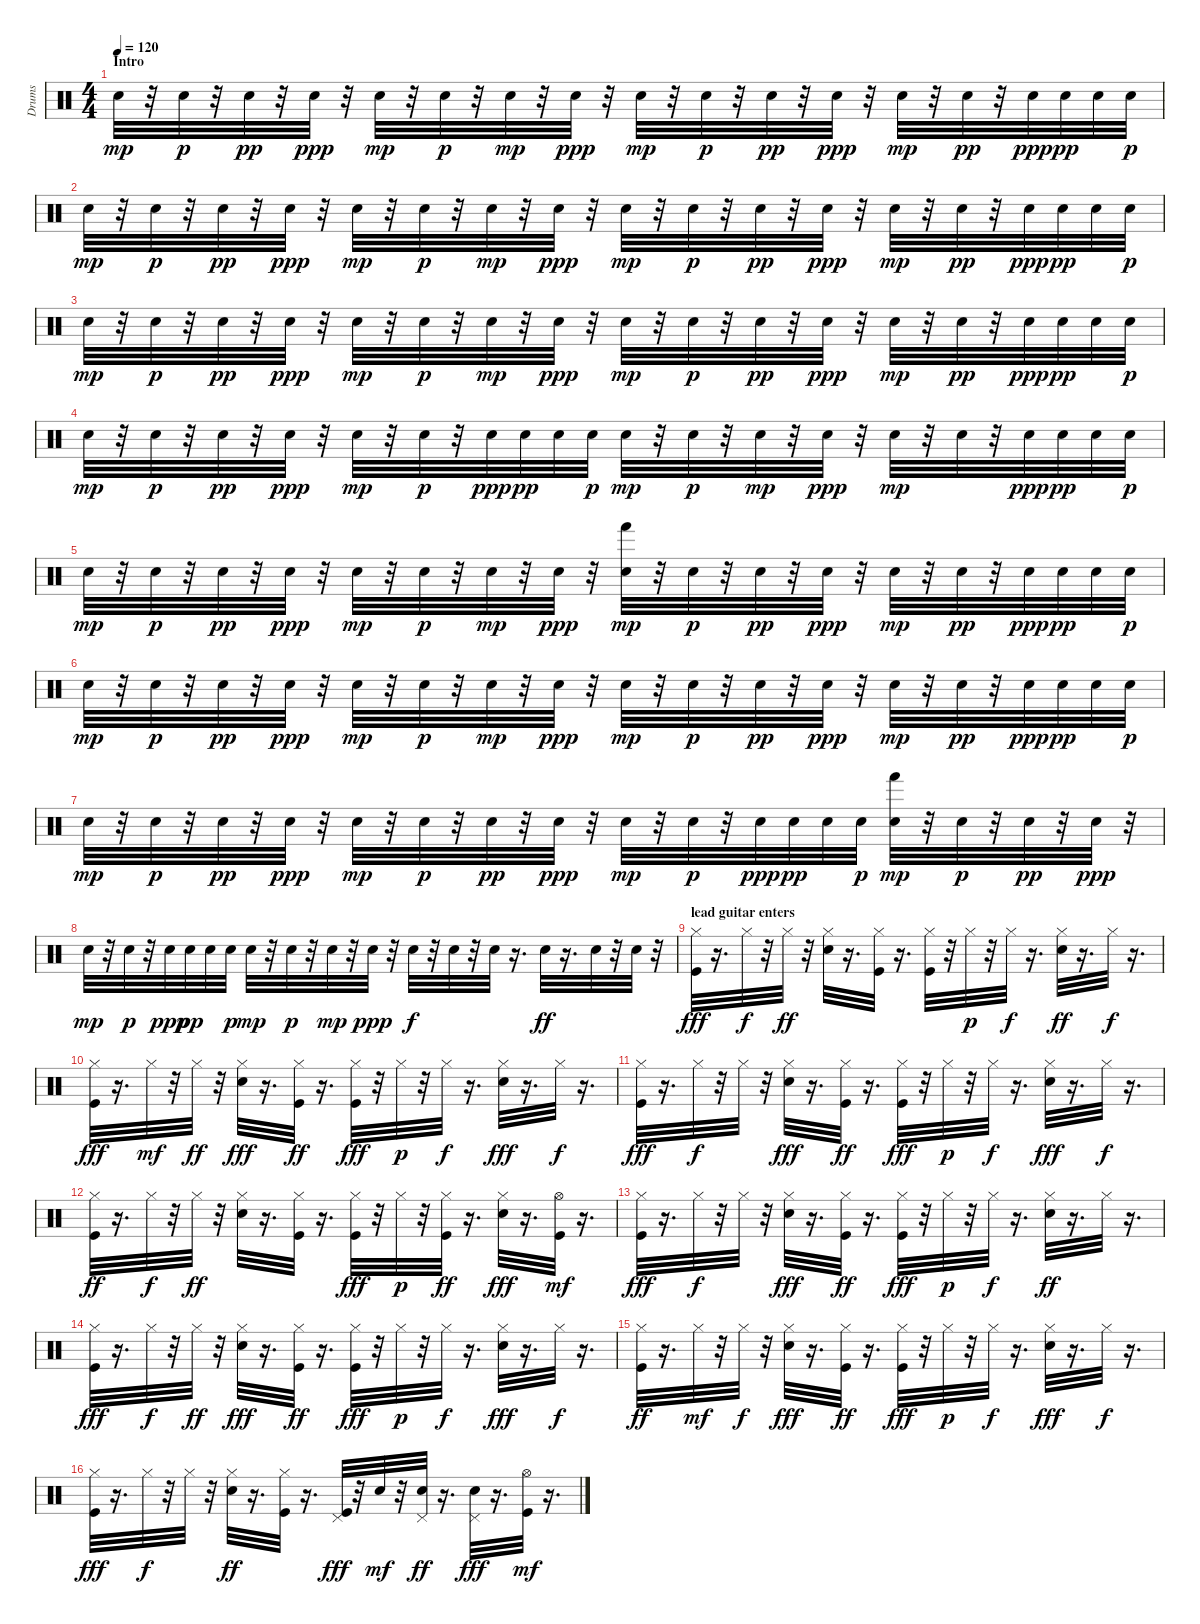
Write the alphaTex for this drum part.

\track ("Drums" "Drums") {instrument percussion}
\staff {score}
\articulation defaults
\ts (4 4)
\section ("" "Intro")
\tempo 120
\clef neutral
\ks c "Snare (hit) 2".32{dy mp}
r.32 "Electric Snare (hit)".32{dy p} r.32 "Snare (hit) 2".32{dy pp} r.32 "Electric Snare (hit)".32{dy ppp} r.32 "Snare (hit) 2".32{dy mp} r.32 "Electric Snare (hit)".32{dy p} r.32 "Snare (hit) 2".32{dy mp} r.32 "Electric Snare (hit)".32{dy ppp} r.32 "Snare (hit) 2".32{dy mp} r.32 "Electric Snare (hit)".32{dy p} r.32 "Snare (hit) 2".32{dy pp} r.32 "Electric Snare (hit)".32{dy ppp} r.32 "Snare (hit) 2".32{dy mp} r.32 "Electric Snare (hit)".32{dy pp} r.32 "Electric Snare (hit)".32{dy ppp} "Electric Snare (hit)".32{dy pp} "Electric Snare (hit)".32 "Electric Snare (hit)".32{dy p} |
"Snare (hit) 2".32{dy mp} r.32 "Electric Snare (hit)".32{dy p} r.32 "Snare (hit) 2".32{dy pp} r.32 "Electric Snare (hit)".32{dy ppp} r.32 "Snare (hit) 2".32{dy mp} r.32 "Electric Snare (hit)".32{dy p} r.32 "Snare (hit) 2".32{dy mp} r.32 "Electric Snare (hit)".32{dy ppp} r.32 "Snare (hit) 2".32{dy mp} r.32 "Electric Snare (hit)".32{dy p} r.32 "Snare (hit) 2".32{dy pp} r.32 "Electric Snare (hit)".32{dy ppp} r.32 "Snare (hit) 2".32{dy mp} r.32 "Electric Snare (hit)".32{dy pp} r.32 "Electric Snare (hit)".32{dy ppp} "Electric Snare (hit)".32{dy pp} "Electric Snare (hit)".32 "Electric Snare (hit)".32{dy p} |
"Snare (hit) 2".32{dy mp} r.32 "Electric Snare (hit)".32{dy p} r.32 "Snare (hit) 2".32{dy pp} r.32 "Electric Snare (hit)".32{dy ppp} r.32 "Snare (hit) 2".32{dy mp} r.32 "Electric Snare (hit)".32{dy p} r.32 "Snare (hit) 2".32{dy mp} r.32 "Electric Snare (hit)".32{dy ppp} r.32 "Snare (hit) 2".32{dy mp} r.32 "Electric Snare (hit)".32{dy p} r.32 "Snare (hit) 2".32{dy pp} r.32 "Electric Snare (hit)".32{dy ppp} r.32 "Snare (hit) 2".32{dy mp} r.32 "Electric Snare (hit)".32{dy pp} r.32 "Electric Snare (hit)".32{dy ppp} "Electric Snare (hit)".32{dy pp} "Electric Snare (hit)".32 "Electric Snare (hit)".32{dy p} |
"Snare (hit) 2".32{dy mp} r.32 "Electric Snare (hit)".32{dy p} r.32 "Snare (hit) 2".32{dy pp} r.32 "Electric Snare (hit)".32{dy ppp} r.32 "Snare (hit) 2".32{dy mp} r.32 "Electric Snare (hit)".32{dy p} r.32 "Electric Snare (hit)".32{dy ppp} "Electric Snare (hit)".32{dy pp} "Electric Snare (hit)".32 "Electric Snare (hit)".32{dy p} "Snare (hit) 2".32{dy mp} r.32 "Electric Snare (hit)".32{dy p} r.32 "Snare (hit) 2".32{dy mp} r.32 "Electric Snare (hit)".32{dy ppp} r.32 "Snare (hit) 2".32{dy mp} r.32 "Electric Snare (hit)".32 r.32 "Electric Snare (hit)".32{dy ppp} "Electric Snare (hit)".32{dy pp} "Electric Snare (hit)".32 "Electric Snare (hit)".32{dy p} |
"Snare (hit) 2".32{dy mp} r.32 "Electric Snare (hit)".32{dy p} r.32 "Snare (hit) 2".32{dy pp} r.32 "Electric Snare (hit)".32{dy ppp} r.32 "Snare (hit) 2".32{dy mp} r.32 "Electric Snare (hit)".32{dy p} r.32 "Snare (hit) 2".32{dy mp} r.32 "Electric Snare (hit)".32{dy ppp} r.32 ("Snare (hit) 2" "Hand (hit)").32{dy mp} r.32 "Electric Snare (hit)".32{dy p} r.32 "Snare (hit) 2".32{dy pp} r.32 "Electric Snare (hit)".32{dy ppp} r.32 "Snare (hit) 2".32{dy mp} r.32 "Electric Snare (hit)".32{dy pp} r.32 "Electric Snare (hit)".32{dy ppp} "Electric Snare (hit)".32{dy pp} "Electric Snare (hit)".32 "Electric Snare (hit)".32{dy p} |
"Snare (hit) 2".32{dy mp} r.32 "Electric Snare (hit)".32{dy p} r.32 "Snare (hit) 2".32{dy pp} r.32 "Electric Snare (hit)".32{dy ppp} r.32 "Snare (hit) 2".32{dy mp} r.32 "Electric Snare (hit)".32{dy p} r.32 "Snare (hit) 2".32{dy mp} r.32 "Electric Snare (hit)".32{dy ppp} r.32 "Snare (hit) 2".32{dy mp} r.32 "Electric Snare (hit)".32{dy p} r.32 "Snare (hit) 2".32{dy pp} r.32 "Electric Snare (hit)".32{dy ppp} r.32 "Snare (hit) 2".32{dy mp} r.32 "Electric Snare (hit)".32{dy pp} r.32 "Electric Snare (hit)".32{dy ppp} "Electric Snare (hit)".32{dy pp} "Electric Snare (hit)".32 "Electric Snare (hit)".32{dy p} |
"Snare (hit) 2".32{dy mp} r.32 "Electric Snare (hit)".32{dy p} r.32 "Snare (hit) 2".32{dy pp} r.32 "Electric Snare (hit)".32{dy ppp} r.32 "Snare (hit) 2".32{dy mp} r.32 "Electric Snare (hit)".32{dy p} r.32 "Snare (hit) 2".32{dy pp} r.32 "Electric Snare (hit)".32{dy ppp} r.32 "Snare (hit) 2".32{dy mp} r.32 "Electric Snare (hit)".32{dy p} r.32 "Electric Snare (hit)".32{dy ppp} "Electric Snare (hit)".32{dy pp} "Electric Snare (hit)".32 "Electric Snare (hit)".32{dy p} ("Hand (hit)" "Snare (hit) 2").32{dy mp} r.32 "Electric Snare (hit)".32{dy p} r.32 "Snare (hit) 2".32{dy pp} r.32 "Electric Snare (hit)".32{dy ppp} r.32 |
"Snare (hit) 2".32{dy mp} r.32 "Electric Snare (hit)".32{dy p} r.32 "Electric Snare (hit)".32{dy ppp} "Electric Snare (hit)".32{dy pp} "Electric Snare (hit)".32 "Electric Snare (hit)".32{dy p} "Snare (hit) 2".32{dy mp} r.32 "Electric Snare (hit)".32{dy p} r.32 "Snare (hit) 2".32{dy mp} r.32 "Electric Snare (hit)".32{dy ppp} r.32 "Electric Snare (hit)".32{dy f} r.32 "Electric Snare (hit)".32 r.32 "Electric Snare (hit)".32 r.16{d} "Electric Snare (hit)".32{dy ff} r.16{d} "Electric Snare (hit)".32 r.32 "Electric Snare (hit)".32 r.32 |
\section ("" "lead guitar enters")
("Hi-Hat (closed)" "Kick (hit)").32{dy fff} r.16{d} "Hi-Hat (closed)".32{dy f} r.32 "Hi-Hat (closed)".32{dy ff} r.32 ("Electric Snare (hit)" "Hi-Hat (closed)").32 r.16{d} ("Kick (hit)" "Hi-Hat (closed)").32 r.16{d} ("Kick (hit)" "Hi-Hat (closed)").32 r.32 "Hi-Hat (closed)".32{dy p} r.32 "Hi-Hat (closed)".32{dy f} r.16{d} ("Electric Snare (hit)" "Hi-Hat (closed)").32{dy ff} r.16{d} "Hi-Hat (closed)".32{dy f} r.16{d} |
("Hi-Hat (closed)" "Kick (hit)").32{dy fff} r.16{d} "Hi-Hat (closed)".32{dy mf} r.32 "Hi-Hat (closed)".32{dy ff} r.32 ("Hi-Hat (closed)" "Electric Snare (hit)").32{dy fff} r.16{d} ("Hi-Hat (closed)" "Kick (hit)").32{dy ff} r.16{d} ("Kick (hit)" "Hi-Hat (closed)").32{dy fff} r.32 "Hi-Hat (closed)".32{dy p} r.32 "Hi-Hat (closed)".32{dy f} r.16{d} ("Hi-Hat (closed)" "Electric Snare (hit)").32{dy fff} r.16{d} "Hi-Hat (closed)".32{dy f} r.16{d} |
("Hi-Hat (closed)" "Kick (hit)").32{dy fff} r.16{d} "Hi-Hat (closed)".32{dy f} r.32 "Hi-Hat (closed)".32 r.32 ("Hi-Hat (closed)" "Electric Snare (hit)").32{dy fff} r.16{d} ("Kick (hit)" "Hi-Hat (closed)").32{dy ff} r.16{d} ("Kick (hit)" "Hi-Hat (closed)").32{dy fff} r.32 "Hi-Hat (closed)".32{dy p} r.32 "Hi-Hat (closed)".32{dy f} r.16{d} ("Hi-Hat (closed)" "Electric Snare (hit)").32{dy fff} r.16{d} "Hi-Hat (closed)".32{dy f} r.16{d} |
("Kick (hit)" "Hi-Hat (closed)").32{dy ff} r.16{d} "Hi-Hat (closed)".32{dy f} r.32 "Hi-Hat (closed)".32{dy ff} r.32 ("Electric Snare (hit)" "Hi-Hat (closed)").32 r.16{d} ("Hi-Hat (closed)" "Kick (hit)").32 r.16{d} ("Hi-Hat (closed)" "Kick (hit)").32{dy fff} r.32 "Hi-Hat (closed)".32{dy p} r.32 ("Hi-Hat (closed)" "Kick (hit)").32{dy ff} r.16{d} ("Hi-Hat (closed)" "Electric Snare (hit)").32{dy fff} r.16{d} ("Kick (hit)" "Hi-Hat (open)").32{dy mf} r.16{d} |
("Hi-Hat (closed)" "Kick (hit)").32{dy fff} r.16{d} "Hi-Hat (closed)".32{dy f} r.32 "Hi-Hat (closed)".32 r.32 ("Hi-Hat (closed)" "Electric Snare (hit)").32{dy fff} r.16{d} ("Kick (hit)" "Hi-Hat (closed)").32{dy ff} r.16{d} ("Hi-Hat (closed)" "Kick (hit)").32{dy fff} r.32 "Hi-Hat (closed)".32{dy p} r.32 "Hi-Hat (closed)".32{dy f} r.16{d} ("Electric Snare (hit)" "Hi-Hat (closed)").32{dy ff} r.16{d} "Hi-Hat (closed)".32 r.16{d} |
("Hi-Hat (closed)" "Kick (hit)").32{dy fff} r.16{d} "Hi-Hat (closed)".32{dy f} r.32 "Hi-Hat (closed)".32{dy ff} r.32 ("Hi-Hat (closed)" "Electric Snare (hit)").32{dy fff} r.16{d} ("Hi-Hat (closed)" "Kick (hit)").32{dy ff} r.16{d} ("Hi-Hat (closed)" "Kick (hit)").32{dy fff} r.32 "Hi-Hat (closed)".32{dy p} r.32 "Hi-Hat (closed)".32{dy f} r.16{d} ("Electric Snare (hit)" "Hi-Hat (closed)").32{dy fff} r.16{d} "Hi-Hat (closed)".32{dy f} r.16{d} |
("Kick (hit)" "Hi-Hat (closed)").32{dy ff} r.16{d} "Hi-Hat (closed)".32{dy mf} r.32 "Hi-Hat (closed)".32{dy f} r.32 ("Hi-Hat (closed)" "Electric Snare (hit)").32{dy fff} r.16{d} ("Hi-Hat (closed)" "Kick (hit)").32{dy ff} r.16{d} ("Hi-Hat (closed)" "Kick (hit)").32{dy fff} r.32 "Hi-Hat (closed)".32{dy p} r.32 "Hi-Hat (closed)".32{dy f} r.16{d} ("Hi-Hat (closed)" "Electric Snare (hit)").32{dy fff} r.16{d} "Hi-Hat (closed)".32{dy f} r.16{d} |
("Hi-Hat (closed)" "Kick (hit)").32{dy fff} r.16{d} "Hi-Hat (closed)".32{dy f} r.32 "Hi-Hat (closed)".32 r.32 ("Electric Snare (hit)" "Hi-Hat (closed)").32{dy ff} r.16{d} ("Hi-Hat (closed)" "Kick (hit)").32 r.16{d} ("Pedal Hi-Hat (hit)" "Kick (hit)").32{dy fff} r.32 "Electric Snare (hit)".32{dy mf} r.32 ("Electric Snare (hit)" "Pedal Hi-Hat (hit)").32{dy ff} r.16{d} ("Pedal Hi-Hat (hit)" "Electric Snare (hit)").32{dy fff} r.16{d} ("Kick (hit)" "Hi-Hat (open)").32{dy mf} r.16{d}
